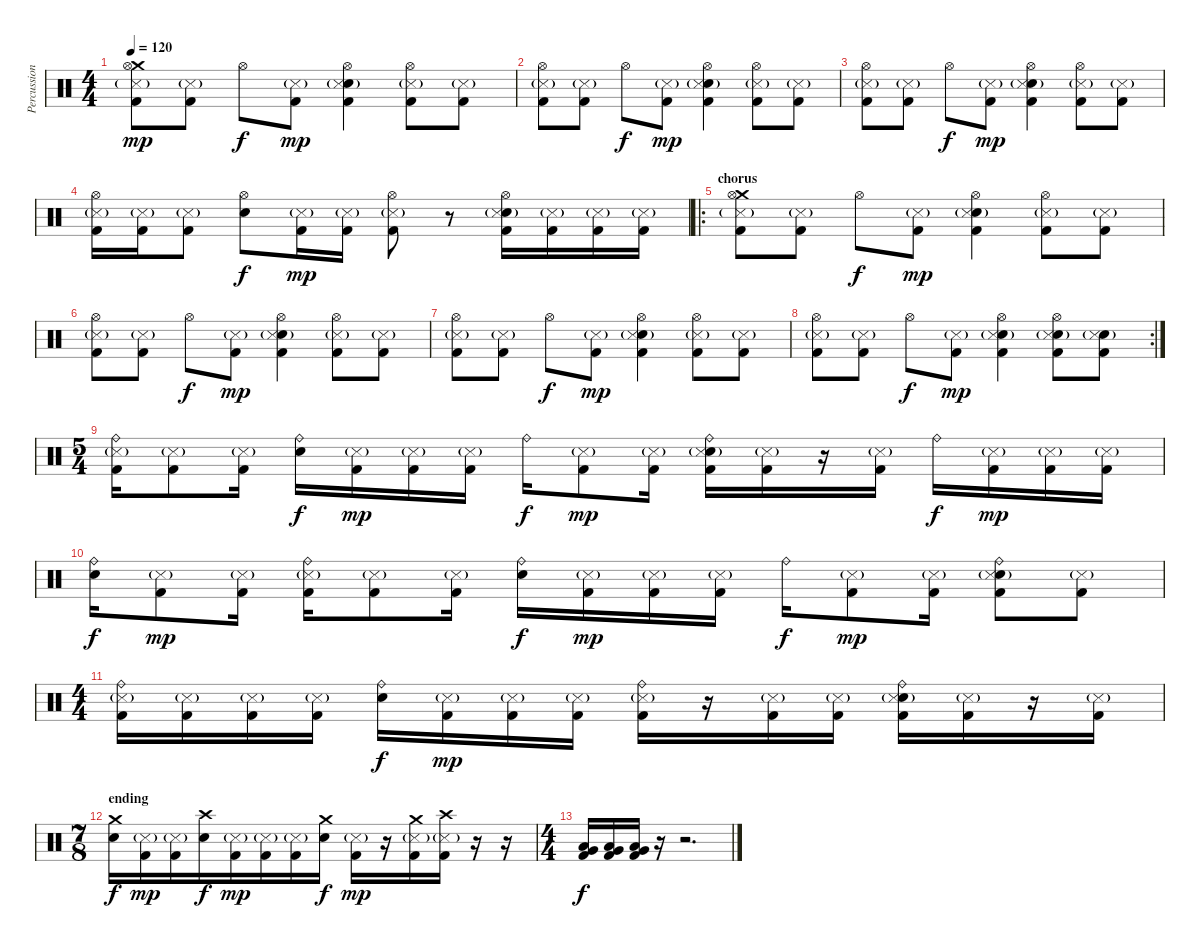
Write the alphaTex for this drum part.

\track ("Percussion" "Percussion") {instrument percussion}
\staff {score}
\articulation defaults
\ts (4 4)
\tempo 120
\clef neutral
\ks c
("Crash medium (hit)" "Hi-Hat (open)" "Snare (side stick) 3"{g} "Kick (hit) 2").8{dy mp} ("Snare (side stick) 3"{g} "Kick (hit) 2").8 "Hi-Hat (open)".8{dy f} ("Snare (side stick) 3"{g} "Kick (hit) 2").8{dy mp} ("Hi-Hat (open)" "Electric Snare (hit)" "Snare (side stick) 3"{g} "Kick (hit) 2").4 ("Hi-Hat (open)" "Snare (side stick) 3"{g} "Kick (hit) 2").8 ("Snare (side stick) 3"{g} "Kick (hit) 2").8 |
("Hi-Hat (open)" "Snare (side stick) 3"{g} "Kick (hit) 2").8 ("Snare (side stick) 3"{g} "Kick (hit) 2").8 "Hi-Hat (open)".8{dy f} ("Snare (side stick) 3"{g} "Kick (hit) 2").8{dy mp} ("Hi-Hat (open)" "Electric Snare (hit)" "Snare (side stick) 3"{g} "Kick (hit) 2").4 ("Hi-Hat (open)" "Snare (side stick) 3"{g} "Kick (hit) 2").8 ("Snare (side stick) 3"{g} "Kick (hit) 2").8 |
("Hi-Hat (open)" "Snare (side stick) 3"{g} "Kick (hit) 2").8 ("Snare (side stick) 3"{g} "Kick (hit) 2").8 "Hi-Hat (open)".8{dy f} ("Snare (side stick) 3"{g} "Kick (hit) 2").8{dy mp} ("Hi-Hat (open)" "Electric Snare (hit)" "Snare (side stick) 3"{g} "Kick (hit) 2").4 ("Hi-Hat (open)" "Snare (side stick) 3"{g} "Kick (hit) 2").8 ("Snare (side stick) 3"{g} "Kick (hit) 2").8 |
("Hi-Hat (open)" "Snare (side stick) 3"{g} "Kick (hit) 2").16 ("Snare (side stick) 3"{g} "Kick (hit) 2").16 ("Snare (side stick) 3"{g} "Kick (hit) 2").8 ("Hi-Hat (open)" "Electric Snare (hit)").8{dy f} ("Snare (side stick) 3"{g} "Kick (hit) 2").16{dy mp} ("Snare (side stick) 3"{g} "Kick (hit) 2").16 ("Hi-Hat (open)" "Snare (side stick) 3"{g} "Kick (hit) 2").8 r.8 ("Hi-Hat (open)" "Electric Snare (hit)" "Snare (side stick) 3"{g} "Kick (hit) 2").16 ("Snare (side stick) 3"{g} "Kick (hit) 2").16 ("Snare (side stick) 3"{g} "Kick (hit) 2").16 ("Snare (side stick) 3"{g} "Kick (hit) 2").16 |
\ro
\section ("" "chorus")
("Crash medium (hit)" "Hi-Hat (open)" "Snare (side stick) 3"{g} "Kick (hit) 2").8 ("Snare (side stick) 3"{g} "Kick (hit) 2").8 "Hi-Hat (open)".8{dy f} ("Snare (side stick) 3"{g} "Kick (hit) 2").8{dy mp} ("Hi-Hat (open)" "Electric Snare (hit)" "Snare (side stick) 3"{g} "Kick (hit) 2").4 ("Hi-Hat (open)" "Snare (side stick) 3"{g} "Kick (hit) 2").8 ("Snare (side stick) 3"{g} "Kick (hit) 2").8 |
("Hi-Hat (open)" "Snare (side stick) 3"{g} "Kick (hit) 2").8 ("Snare (side stick) 3"{g} "Kick (hit) 2").8 "Hi-Hat (open)".8{dy f} ("Snare (side stick) 3"{g} "Kick (hit) 2").8{dy mp} ("Hi-Hat (open)" "Electric Snare (hit)" "Snare (side stick) 3"{g} "Kick (hit) 2").4 ("Hi-Hat (open)" "Snare (side stick) 3"{g} "Kick (hit) 2").8 ("Snare (side stick) 3"{g} "Kick (hit) 2").8 |
("Hi-Hat (open)" "Snare (side stick) 3"{g} "Kick (hit) 2").8 ("Snare (side stick) 3"{g} "Kick (hit) 2").8 "Hi-Hat (open)".8{dy f} ("Snare (side stick) 3"{g} "Kick (hit) 2").8{dy mp} ("Hi-Hat (open)" "Electric Snare (hit)" "Snare (side stick) 3"{g} "Kick (hit) 2").4 ("Hi-Hat (open)" "Snare (side stick) 3"{g} "Kick (hit) 2").8 ("Snare (side stick) 3"{g} "Kick (hit) 2").8 |
\rc 2
("Hi-Hat (open)" "Snare (side stick) 3"{g} "Kick (hit) 2").8 ("Snare (side stick) 3"{g} "Kick (hit) 2").8 "Hi-Hat (open)".8{dy f} ("Snare (side stick) 3"{g} "Kick (hit) 2").8{dy mp} ("Hi-Hat (open)" "Electric Snare (hit)" "Snare (side stick) 3"{g} "Kick (hit) 2").4 ("Hi-Hat (open)" "Electric Snare (hit)" "Snare (side stick) 3"{g} "Kick (hit) 2").8 ("Electric Snare (hit)" "Snare (side stick) 3"{g} "Kick (hit) 2").8 |
\ts (5 4)
("Ride (bell)" "Snare (side stick) 3"{g} "Kick (hit) 2").16 ("Snare (side stick) 3"{g} "Kick (hit) 2").8 ("Snare (side stick) 3"{g} "Kick (hit) 2").16 ("Ride (bell)" "Electric Snare (hit)").16{dy f} ("Snare (side stick) 3"{g} "Kick (hit) 2").16{dy mp} ("Snare (side stick) 3"{g} "Kick (hit) 2").16 ("Snare (side stick) 3"{g} "Kick (hit) 2").16 "Ride (bell)".16{dy f} ("Snare (side stick) 3"{g} "Kick (hit) 2").8{dy mp} ("Snare (side stick) 3"{g} "Kick (hit) 2").16 ("Ride (bell)" "Electric Snare (hit)" "Snare (side stick) 3"{g} "Kick (hit) 2").16 ("Snare (side stick) 3"{g} "Kick (hit) 2").16 r.16 ("Snare (side stick) 3"{g} "Kick (hit) 2").16 "Ride (bell)".16{dy f} ("Snare (side stick) 3"{g} "Kick (hit) 2").16{dy mp} ("Snare (side stick) 3"{g} "Kick (hit) 2").16 ("Snare (side stick) 3"{g} "Kick (hit) 2").16 |
("Ride (bell)" "Electric Snare (hit)").16{dy f} ("Snare (side stick) 3"{g} "Kick (hit) 2").8{dy mp} ("Snare (side stick) 3"{g} "Kick (hit) 2").16 ("Ride (bell)" "Snare (side stick) 3"{g} "Kick (hit) 2").16 ("Snare (side stick) 3"{g} "Kick (hit) 2").8 ("Snare (side stick) 3"{g} "Kick (hit) 2").16 ("Ride (bell)" "Electric Snare (hit)").16{dy f} ("Snare (side stick) 3"{g} "Kick (hit) 2").16{dy mp} ("Snare (side stick) 3"{g} "Kick (hit) 2").16 ("Snare (side stick) 3"{g} "Kick (hit) 2").16 "Ride (bell)".16{dy f} ("Snare (side stick) 3"{g} "Kick (hit) 2").8{dy mp} ("Snare (side stick) 3"{g} "Kick (hit) 2").16 ("Ride (bell)" "Electric Snare (hit)" "Snare (side stick) 3"{g} "Kick (hit) 2").8 ("Snare (side stick) 3"{g} "Kick (hit) 2").8 |
\ts (4 4)
("Ride (bell)" "Snare (side stick) 3"{g} "Kick (hit) 2").16 ("Snare (side stick) 3"{g} "Kick (hit) 2").16 ("Snare (side stick) 3"{g} "Kick (hit) 2").16 ("Snare (side stick) 3"{g} "Kick (hit) 2").16 ("Ride (bell)" "Electric Snare (hit)").16{dy f} ("Snare (side stick) 3"{g} "Kick (hit) 2").16{dy mp} ("Snare (side stick) 3"{g} "Kick (hit) 2").16 ("Snare (side stick) 3"{g} "Kick (hit) 2").16 ("Ride (bell)" "Snare (side stick) 3"{g} "Kick (hit) 2").16 r.16 ("Snare (side stick) 3"{g} "Kick (hit) 2").16 ("Snare (side stick) 3"{g} "Kick (hit) 2").16 ("Ride (bell)" "Electric Snare (hit)" "Snare (side stick) 3"{g} "Kick (hit) 2").16 ("Snare (side stick) 3"{g} "Kick (hit) 2").16 r.16 ("Snare (side stick) 3"{g} "Kick (hit) 2").16 |
\ts (7 8)
\section ("" "ending")
("Crash medium (hit)" "Electric Snare (hit)").16{dy f} ("Snare (side stick) 3"{g} "Kick (hit) 2").16{dy mp} ("Snare (side stick) 3"{g} "Kick (hit) 2").16 ("Crash high (hit)" "Electric Snare (hit)").16{dy f} ("Snare (side stick) 3"{g} "Kick (hit) 2").16{dy mp} ("Snare (side stick) 3"{g} "Kick (hit) 2").16 ("Snare (side stick) 3"{g} "Kick (hit) 2").16 ("Crash medium (hit)" "Electric Snare (hit)").16{dy f} ("Snare (side stick) 3"{g} "Kick (hit) 2").16{dy mp} r.16 ("Crash medium (hit)" "Snare (side stick) 3"{g} "Kick (hit) 2").16 ("Crash high (hit)" "Snare (side stick) 3"{g} "Kick (hit) 2").16 r.16 r.16 |
\ts (4 4)
("Very Low Tom (hit)" "Low Floor Tom (hit)" "Kick (hit) 2").16{dy f} ("Very Low Tom (hit)" "Low Floor Tom (hit)" "Kick (hit) 2").16 ("Very Low Tom (hit)" "Low Floor Tom (hit)" "Kick (hit) 2").16 r.16 r.2{d}
